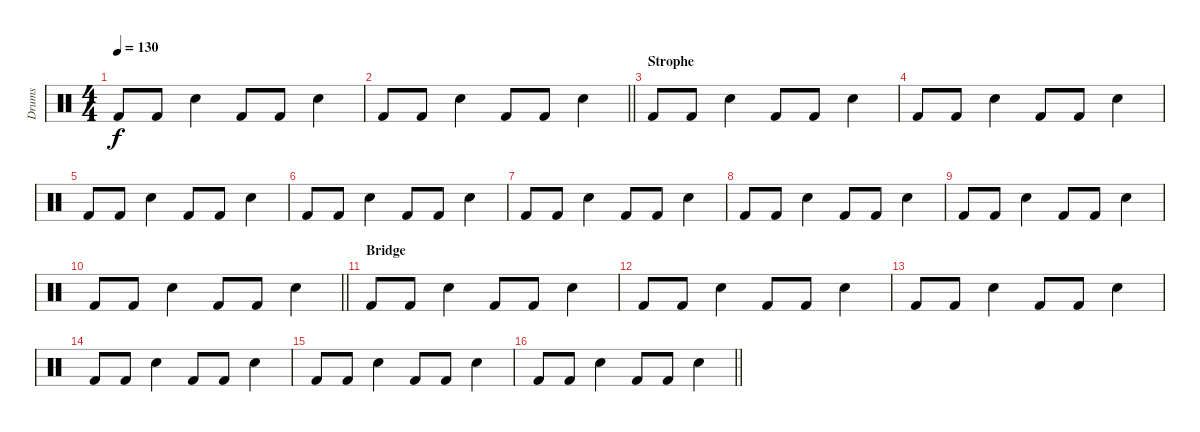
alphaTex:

\track ("Drums" "Drums") {instrument percussion}
\staff {score}
\articulation defaults
\ts (4 4)
\tempo 130
\clef neutral
\ks c "Kick (hit) 2".8{dy f} "Kick (hit) 2".8 "Snare (hit) 2".4 "Kick (hit) 2".8 "Kick (hit) 2".8 "Snare (hit) 2".4
|
\barLineRight lightlight "Kick (hit) 2".8 "Kick (hit) 2".8 "Snare (hit) 2".4 "Kick (hit) 2".8 "Kick (hit) 2".8 "Snare (hit) 2".4
|
\section ("" "Strophe")
"Kick (hit) 2".8 "Kick (hit) 2".8 "Snare (hit) 2".4 "Kick (hit) 2".8 "Kick (hit) 2".8 "Snare (hit) 2".4 |
"Kick (hit) 2".8 "Kick (hit) 2".8 "Snare (hit) 2".4 "Kick (hit) 2".8 "Kick (hit) 2".8 "Snare (hit) 2".4 |
"Kick (hit) 2".8 "Kick (hit) 2".8 "Snare (hit) 2".4 "Kick (hit) 2".8 "Kick (hit) 2".8 "Snare (hit) 2".4 |
"Kick (hit) 2".8 "Kick (hit) 2".8 "Snare (hit) 2".4 "Kick (hit) 2".8 "Kick (hit) 2".8 "Snare (hit) 2".4 |
"Kick (hit) 2".8 "Kick (hit) 2".8 "Snare (hit) 2".4 "Kick (hit) 2".8 "Kick (hit) 2".8 "Snare (hit) 2".4 |
"Kick (hit) 2".8 "Kick (hit) 2".8 "Snare (hit) 2".4 "Kick (hit) 2".8 "Kick (hit) 2".8 "Snare (hit) 2".4 |
"Kick (hit) 2".8 "Kick (hit) 2".8 "Snare (hit) 2".4 "Kick (hit) 2".8 "Kick (hit) 2".8 "Snare (hit) 2".4 |
\barLineRight lightlight "Kick (hit) 2".8 "Kick (hit) 2".8 "Snare (hit) 2".4 "Kick (hit) 2".8 "Kick (hit) 2".8 "Snare (hit) 2".4
|
\section ("" "Bridge")
"Kick (hit) 2".8 "Kick (hit) 2".8 "Snare (hit) 2".4 "Kick (hit) 2".8 "Kick (hit) 2".8 "Snare (hit) 2".4 |
"Kick (hit) 2".8 "Kick (hit) 2".8 "Snare (hit) 2".4 "Kick (hit) 2".8 "Kick (hit) 2".8 "Snare (hit) 2".4 |
"Kick (hit) 2".8 "Kick (hit) 2".8 "Snare (hit) 2".4 "Kick (hit) 2".8 "Kick (hit) 2".8 "Snare (hit) 2".4 |
"Kick (hit) 2".8 "Kick (hit) 2".8 "Snare (hit) 2".4 "Kick (hit) 2".8 "Kick (hit) 2".8 "Snare (hit) 2".4 |
"Kick (hit) 2".8 "Kick (hit) 2".8 "Snare (hit) 2".4 "Kick (hit) 2".8 "Kick (hit) 2".8 "Snare (hit) 2".4 |
\barLineRight lightlight "Kick (hit) 2".8 "Kick (hit) 2".8 "Snare (hit) 2".4 "Kick (hit) 2".8 "Kick (hit) 2".8 "Snare (hit) 2".4
